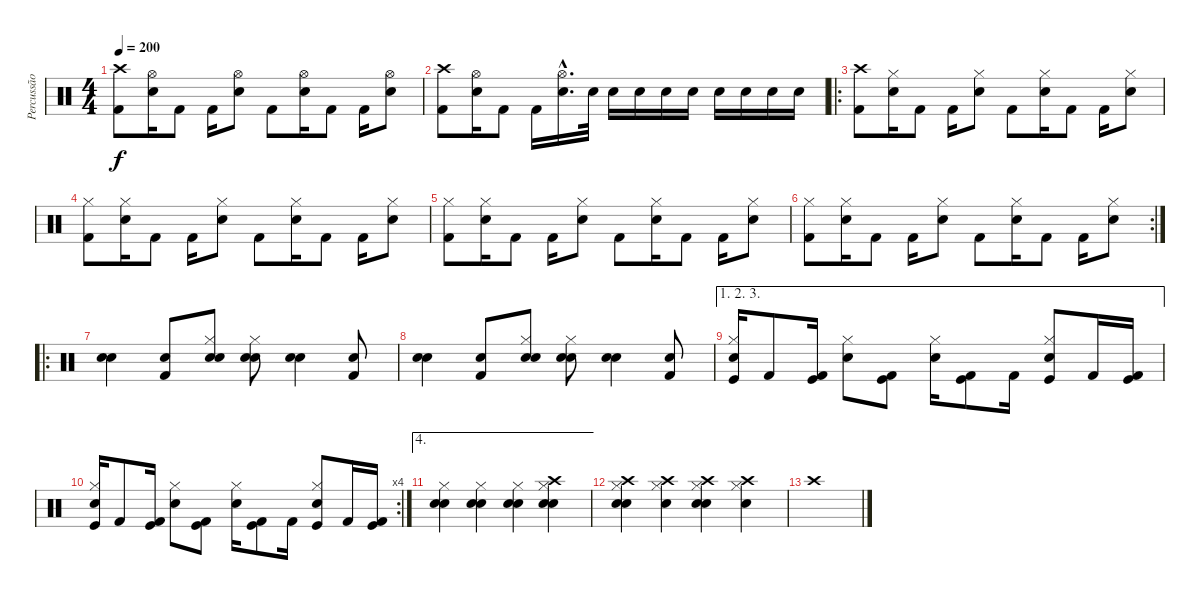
\track ("Percussão" "Percussão") {instrument percussion}
\staff {score}
\articulation defaults
\ts (4 4)
\tempo 200
\clef neutral
\ks c
("Crash high (hit)" "Kick (hit) 2").8{dy f} ("Hi-Hat (open)" "Snare (hit) 2").16 "Kick (hit) 2".8 "Kick (hit) 2".16 ("Hi-Hat (open)" "Snare (hit) 2").8 "Kick (hit) 2".8 ("Hi-Hat (open)" "Snare (hit) 2").16 "Kick (hit) 2".8 "Kick (hit) 2".16 ("Hi-Hat (open)" "Snare (hit) 2").8 |
("Crash high (hit)" "Kick (hit) 2").8 ("Hi-Hat (open)" "Snare (hit) 2").16 "Kick (hit) 2".8 "Kick (hit) 2".16 ("Hi-Hat (open)"{hac} "Snare (hit) 2"{hac}).16{d} "Snare (hit) 2".32 "Snare (hit) 2".16 "Snare (hit) 2".16 "Snare (hit) 2".16 "Snare (hit) 2".16 "Snare (hit) 2".16 "Snare (hit) 2".16 "Snare (hit) 2".16 "Snare (hit) 2".16 |
\ro
("Crash high (hit)" "Kick (hit) 2").8 ("Hi-Hat (closed)" "Snare (hit) 2").16 "Kick (hit) 2".8 "Kick (hit) 2".16 ("Hi-Hat (closed)" "Snare (hit) 2").8 "Kick (hit) 2".8 ("Hi-Hat (closed)" "Snare (hit) 2").16 "Kick (hit) 2".8 "Kick (hit) 2".16 ("Hi-Hat (closed)" "Snare (hit) 2").8 |
("Hi-Hat (closed)" "Kick (hit) 2").8 ("Hi-Hat (closed)" "Snare (hit) 2").16 "Kick (hit) 2".8 "Kick (hit) 2".16 ("Hi-Hat (closed)" "Snare (hit) 2").8 "Kick (hit) 2".8 ("Hi-Hat (closed)" "Snare (hit) 2").16 "Kick (hit) 2".8 "Kick (hit) 2".16 ("Hi-Hat (closed)" "Snare (hit) 2").8 |
("Hi-Hat (closed)" "Kick (hit) 2").8 ("Hi-Hat (closed)" "Snare (hit) 2").16 "Kick (hit) 2".8 "Kick (hit) 2".16 ("Hi-Hat (closed)" "Snare (hit) 2").8 "Kick (hit) 2".8 ("Hi-Hat (closed)" "Snare (hit) 2").16 "Kick (hit) 2".8 "Kick (hit) 2".16 ("Hi-Hat (closed)" "Snare (hit) 2").8 |
\rc 2
("Hi-Hat (closed)" "Kick (hit) 2").8 ("Hi-Hat (closed)" "Snare (hit) 2").16 "Kick (hit) 2".8 "Kick (hit) 2".16 ("Hi-Hat (closed)" "Snare (hit) 2").8 "Kick (hit) 2".8 ("Hi-Hat (closed)" "Snare (hit) 2").16 "Kick (hit) 2".8 "Kick (hit) 2".16 ("Hi-Hat (closed)" "Snare (hit) 2").8 |
\ro
("Snare (hit) 2" "Electric Snare (hit)").4 ("Kick (hit) 2" "Electric Snare (hit)").8 ("Snare (hit) 2" "Electric Snare (hit)" "Hi-Hat (closed)").8 ("Snare (hit) 2" "Electric Snare (hit)" "Hi-Hat (closed)").8 ("Snare (hit) 2" "Electric Snare (hit)").4 ("Kick (hit) 2" "Electric Snare (hit)").8 |
("Snare (hit) 2" "Electric Snare (hit)").4 ("Kick (hit) 2" "Electric Snare (hit)").8 ("Snare (hit) 2" "Electric Snare (hit)" "Hi-Hat (closed)").8 ("Snare (hit) 2" "Electric Snare (hit)" "Hi-Hat (closed)").8 ("Snare (hit) 2" "Electric Snare (hit)").4 ("Kick (hit) 2" "Electric Snare (hit)").8 |
\ae (1 2 3)
("Hi-Hat (closed)" "Kick (hit)" "Snare (hit) 2").16 "Kick (hit) 2".8 ("Kick (hit)" "Kick (hit) 2").16 ("Hi-Hat (closed)" "Snare (hit) 2").8 ("Kick (hit)" "Kick (hit) 2").8 ("Hi-Hat (closed)" "Snare (hit) 2").16 ("Kick (hit)" "Kick (hit) 2").8 "Kick (hit) 2".16 ("Hi-Hat (closed)" "Kick (hit)" "Snare (hit) 2").8 "Kick (hit) 2".16 ("Kick (hit)" "Kick (hit) 2").16 |
\rc 4
("Hi-Hat (closed)" "Kick (hit)" "Snare (hit) 2").16 "Kick (hit) 2".8 ("Kick (hit)" "Kick (hit) 2").16 ("Hi-Hat (closed)" "Snare (hit) 2").8 ("Kick (hit)" "Kick (hit) 2").8 ("Hi-Hat (closed)" "Snare (hit) 2").16 ("Kick (hit)" "Kick (hit) 2").8 "Kick (hit) 2".16 ("Hi-Hat (closed)" "Kick (hit)" "Snare (hit) 2").8 "Kick (hit) 2".16 ("Kick (hit)" "Kick (hit) 2").16 |
\ae 4
("Electric Snare (hit)" "Hi-Hat (closed)" "Snare (hit) 2").4 ("Electric Snare (hit)" "Hi-Hat (closed)" "Snare (hit) 2").4 ("Electric Snare (hit)" "Hi-Hat (closed)" "Snare (hit) 2").4 ("Crash high (hit)" "Electric Snare (hit)" "Hi-Hat (closed)" "Snare (hit) 2").4 |
("Crash high (hit)" "Electric Snare (hit)" "Hi-Hat (closed)" "Snare (hit) 2").4 ("Crash high (hit)" "Electric Snare (hit)" "Hi-Hat (closed)").4 ("Crash high (hit)" "Electric Snare (hit)" "Hi-Hat (closed)" "Snare (hit) 2").4 ("Crash high (hit)" "Electric Snare (hit)" "Hi-Hat (closed)").4 |
"Crash high (hit)".1
